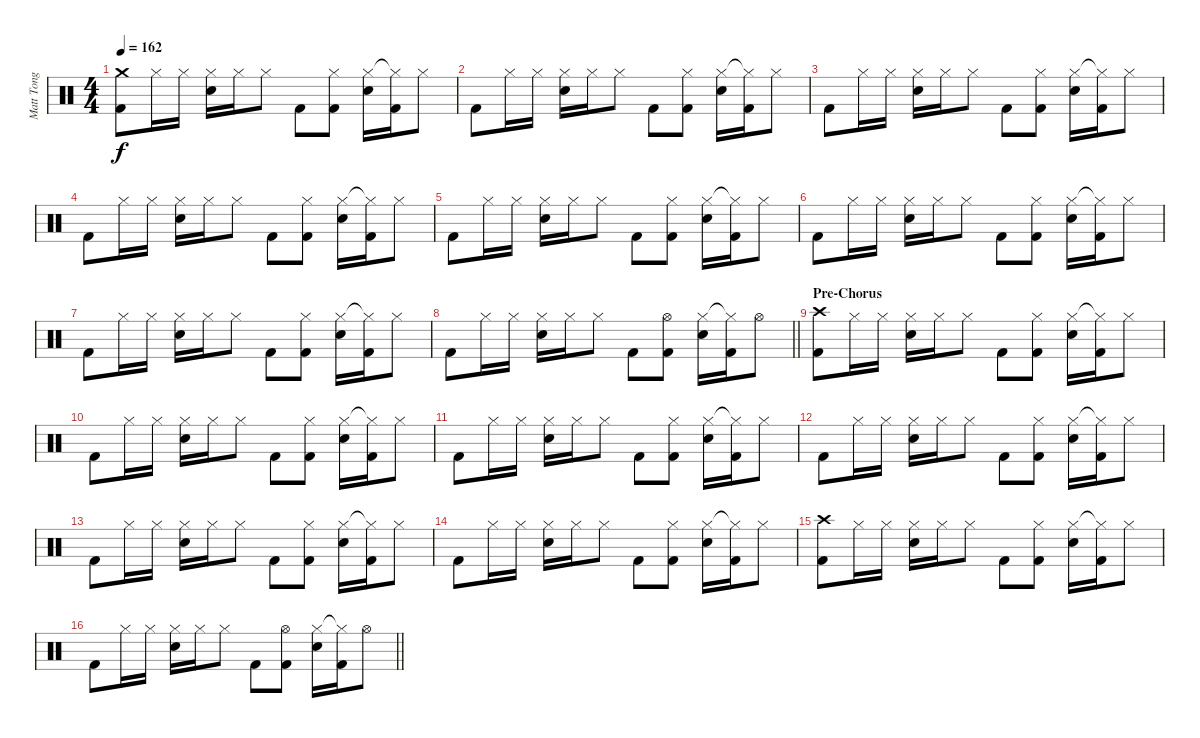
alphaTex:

\track ("Matt Tong" "Matt Tong") {instrument percussion}
\staff {score}
\articulation defaults
\ts (4 4)
\tempo 162
\clef neutral
\ks c
("Crash medium (hit)" "Kick (hit) 2").8{dy f} "Hi-Hat (closed)".16 "Hi-Hat (closed)".16 ("Hi-Hat (closed)" "Snare (hit) 2").16 "Hi-Hat (closed)".16 "Hi-Hat (closed)".8 "Kick (hit) 2".8 ("Hi-Hat (closed)" "Kick (hit) 2").8 ("Hi-Hat (closed)" "Snare (hit) 2").16 ("Hi-Hat (closed)"{t} "Kick (hit) 2").16 "Hi-Hat (closed)".8 |
"Kick (hit) 2".8 "Hi-Hat (closed)".16 "Hi-Hat (closed)".16 ("Hi-Hat (closed)" "Snare (hit) 2").16 "Hi-Hat (closed)".16 "Hi-Hat (closed)".8 "Kick (hit) 2".8 ("Hi-Hat (closed)" "Kick (hit) 2").8 ("Hi-Hat (closed)" "Snare (hit) 2").16 ("Hi-Hat (closed)"{t} "Kick (hit) 2").16 "Hi-Hat (closed)".8 |
"Kick (hit) 2".8 "Hi-Hat (closed)".16 "Hi-Hat (closed)".16 ("Hi-Hat (closed)" "Snare (hit) 2").16 "Hi-Hat (closed)".16 "Hi-Hat (closed)".8 "Kick (hit) 2".8 ("Hi-Hat (closed)" "Kick (hit) 2").8 ("Hi-Hat (closed)" "Snare (hit) 2").16 ("Hi-Hat (closed)"{t} "Kick (hit) 2").16 "Hi-Hat (closed)".8 |
"Kick (hit) 2".8 "Hi-Hat (closed)".16 "Hi-Hat (closed)".16 ("Hi-Hat (closed)" "Snare (hit) 2").16 "Hi-Hat (closed)".16 "Hi-Hat (closed)".8 "Kick (hit) 2".8 ("Hi-Hat (closed)" "Kick (hit) 2").8 ("Hi-Hat (closed)" "Snare (hit) 2").16 ("Hi-Hat (closed)"{t} "Kick (hit) 2").16 "Hi-Hat (closed)".8 |
"Kick (hit) 2".8 "Hi-Hat (closed)".16 "Hi-Hat (closed)".16 ("Hi-Hat (closed)" "Snare (hit) 2").16 "Hi-Hat (closed)".16 "Hi-Hat (closed)".8 "Kick (hit) 2".8 ("Hi-Hat (closed)" "Kick (hit) 2").8 ("Hi-Hat (closed)" "Snare (hit) 2").16 ("Hi-Hat (closed)"{t} "Kick (hit) 2").16 "Hi-Hat (closed)".8 |
"Kick (hit) 2".8 "Hi-Hat (closed)".16 "Hi-Hat (closed)".16 ("Hi-Hat (closed)" "Snare (hit) 2").16 "Hi-Hat (closed)".16 "Hi-Hat (closed)".8 "Kick (hit) 2".8 ("Hi-Hat (closed)" "Kick (hit) 2").8 ("Hi-Hat (closed)" "Snare (hit) 2").16 ("Hi-Hat (closed)"{t} "Kick (hit) 2").16 "Hi-Hat (closed)".8 |
"Kick (hit) 2".8 "Hi-Hat (closed)".16 "Hi-Hat (closed)".16 ("Hi-Hat (closed)" "Snare (hit) 2").16 "Hi-Hat (closed)".16 "Hi-Hat (closed)".8 "Kick (hit) 2".8 ("Hi-Hat (closed)" "Kick (hit) 2").8 ("Hi-Hat (closed)" "Snare (hit) 2").16 ("Hi-Hat (closed)"{t} "Kick (hit) 2").16 "Hi-Hat (closed)".8 |
\barLineRight lightlight "Kick (hit) 2".8 "Hi-Hat (closed)".16 "Hi-Hat (closed)".16
("Hi-Hat (closed)" "Snare (hit) 2").16 "Hi-Hat (closed)".16 "Hi-Hat (closed)".8 "Kick (hit) 2".8 ("Hi-Hat (open)" "Kick (hit) 2").8 ("Hi-Hat (closed)" "Snare (hit) 2").16 ("Hi-Hat (closed)"{t} "Kick (hit) 2").16 "Hi-Hat (open)".8 |
\section ("" "Pre-Chorus")
("Crash high (hit)" "Kick (hit) 2").8 "Hi-Hat (closed)".16 "Hi-Hat (closed)".16 ("Hi-Hat (closed)" "Snare (hit) 2").16 "Hi-Hat (closed)".16 "Hi-Hat (closed)".8 "Kick (hit) 2".8 ("Hi-Hat (closed)" "Kick (hit) 2").8 ("Hi-Hat (closed)" "Snare (hit) 2").16 ("Hi-Hat (closed)"{t} "Kick (hit) 2").16 "Hi-Hat (closed)".8 |
"Kick (hit) 2".8 "Hi-Hat (closed)".16 "Hi-Hat (closed)".16 ("Hi-Hat (closed)" "Snare (hit) 2").16 "Hi-Hat (closed)".16 "Hi-Hat (closed)".8 "Kick (hit) 2".8 ("Hi-Hat (closed)" "Kick (hit) 2").8 ("Hi-Hat (closed)" "Snare (hit) 2").16 ("Hi-Hat (closed)"{t} "Kick (hit) 2").16 "Hi-Hat (closed)".8 |
"Kick (hit) 2".8 "Hi-Hat (closed)".16 "Hi-Hat (closed)".16 ("Hi-Hat (closed)" "Snare (hit) 2").16 "Hi-Hat (closed)".16 "Hi-Hat (closed)".8 "Kick (hit) 2".8 ("Hi-Hat (closed)" "Kick (hit) 2").8 ("Hi-Hat (closed)" "Snare (hit) 2").16 ("Hi-Hat (closed)"{t} "Kick (hit) 2").16 "Hi-Hat (closed)".8 |
"Kick (hit) 2".8 "Hi-Hat (closed)".16 "Hi-Hat (closed)".16 ("Hi-Hat (closed)" "Snare (hit) 2").16 "Hi-Hat (closed)".16 "Hi-Hat (closed)".8 "Kick (hit) 2".8 ("Hi-Hat (closed)" "Kick (hit) 2").8 ("Hi-Hat (closed)" "Snare (hit) 2").16 ("Hi-Hat (closed)"{t} "Kick (hit) 2").16 "Hi-Hat (closed)".8 |
"Kick (hit) 2".8 "Hi-Hat (closed)".16 "Hi-Hat (closed)".16 ("Hi-Hat (closed)" "Snare (hit) 2").16 "Hi-Hat (closed)".16 "Hi-Hat (closed)".8 "Kick (hit) 2".8 ("Hi-Hat (closed)" "Kick (hit) 2").8 ("Hi-Hat (closed)" "Snare (hit) 2").16 ("Hi-Hat (closed)"{t} "Kick (hit) 2").16 "Hi-Hat (closed)".8 |
"Kick (hit) 2".8 "Hi-Hat (closed)".16 "Hi-Hat (closed)".16 ("Hi-Hat (closed)" "Snare (hit) 2").16 "Hi-Hat (closed)".16 "Hi-Hat (closed)".8 "Kick (hit) 2".8 ("Hi-Hat (closed)" "Kick (hit) 2").8 ("Hi-Hat (closed)" "Snare (hit) 2").16 ("Hi-Hat (closed)"{t} "Kick (hit) 2").16 "Hi-Hat (closed)".8 |
("Crash high (hit)" "Kick (hit) 2").8 "Hi-Hat (closed)".16 "Hi-Hat (closed)".16 ("Hi-Hat (closed)" "Snare (hit) 2").16 "Hi-Hat (closed)".16 "Hi-Hat (closed)".8 "Kick (hit) 2".8 ("Hi-Hat (closed)" "Kick (hit) 2").8 ("Hi-Hat (closed)" "Snare (hit) 2").16 ("Hi-Hat (closed)"{t} "Kick (hit) 2").16 "Hi-Hat (closed)".8 |
\barLineRight lightlight "Kick (hit) 2".8 "Hi-Hat (closed)".16 "Hi-Hat (closed)".16
("Hi-Hat (closed)" "Snare (hit) 2").16 "Hi-Hat (closed)".16 "Hi-Hat (closed)".8 "Kick (hit) 2".8 ("Hi-Hat (open)" "Kick (hit) 2").8 ("Hi-Hat (closed)" "Snare (hit) 2").16 ("Hi-Hat (closed)"{t} "Kick (hit) 2").16 "Hi-Hat (open)".8
